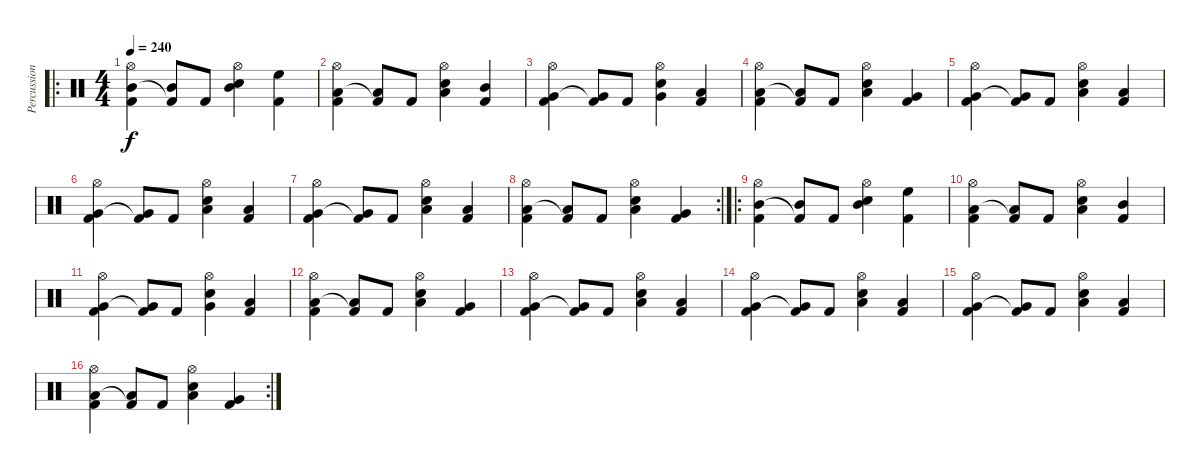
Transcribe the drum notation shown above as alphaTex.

\track ("Percussion" "Percussion") {instrument percussion}
\staff {score}
\articulation defaults
\ro
\ts (4 4)
\tempo 240
\clef neutral
\ks c
("Hi-Hat (open)" "Mid Tom (hit)" "Kick (hit) 2").4{dy f} ("Mid Tom (hit)" "Kick (hit) 2"{t}).8 "Kick (hit) 2".8 ("Hi-Hat (open)" "Mid Tom (hit)" "Snare (hit) 2").4 ("High Floor Tom (hit)" "Kick (hit) 2").4 |
("Hi-Hat (open)" "Low Tom (hit)" "Kick (hit) 2").4 ("Low Tom (hit)" "Kick (hit) 2"{t}).8 "Kick (hit) 2".8 ("Hi-Hat (open)" "Low Tom (hit)" "Snare (hit) 2").4 ("Mid Tom (hit)" "Kick (hit) 2").4 |
("Hi-Hat (open)" "Very Low Tom (hit)" "Kick (hit) 2").4 ("Very Low Tom (hit)" "Kick (hit) 2"{t}).8 "Kick (hit) 2".8 ("Hi-Hat (open)" "Very Low Tom (hit)" "Snare (hit) 2").4 ("Low Tom (hit)" "Kick (hit) 2").4 |
("Hi-Hat (open)" "Low Floor Tom (hit)" "Kick (hit) 2").4 ("Low Floor Tom (hit)" "Kick (hit) 2"{t}).8 "Kick (hit) 2".8 ("Hi-Hat (open)" "Low Floor Tom (hit)" "Snare (hit) 2").4 ("Very Low Tom (hit)" "Kick (hit) 2").4 |
("Hi-Hat (open)" "Very Low Tom (hit)" "Kick (hit) 2").4 ("Very Low Tom (hit)" "Kick (hit) 2"{t}).8 "Kick (hit) 2".8 ("Hi-Hat (open)" "Low Floor Tom (hit)" "Snare (hit) 2").4 ("Low Tom (hit)" "Kick (hit) 2").4 |
("Hi-Hat (open)" "Very Low Tom (hit)" "Kick (hit) 2").4 ("Very Low Tom (hit)" "Kick (hit) 2"{t}).8 "Kick (hit) 2".8 ("Hi-Hat (open)" "Low Floor Tom (hit)" "Snare (hit) 2").4 ("Low Tom (hit)" "Kick (hit) 2").4 |
("Hi-Hat (open)" "Very Low Tom (hit)" "Kick (hit) 2").4 ("Very Low Tom (hit)" "Kick (hit) 2"{t}).8 "Kick (hit) 2".8 ("Hi-Hat (open)" "Low Floor Tom (hit)" "Snare (hit) 2").4 ("Low Tom (hit)" "Kick (hit) 2").4 |
\rc 2
("Hi-Hat (open)" "Low Floor Tom (hit)" "Kick (hit) 2").4 ("Low Floor Tom (hit)" "Kick (hit) 2"{t}).8 "Kick (hit) 2".8 ("Hi-Hat (open)" "Low Floor Tom (hit)" "Snare (hit) 2").4 ("Very Low Tom (hit)" "Kick (hit) 2").4 |
\ro
("Hi-Hat (open)" "Mid Tom (hit)" "Kick (hit) 2").4 ("Mid Tom (hit)" "Kick (hit) 2"{t}).8 "Kick (hit) 2".8 ("Hi-Hat (open)" "Mid Tom (hit)" "Snare (hit) 2").4 ("High Floor Tom (hit)" "Kick (hit) 2").4 |
("Hi-Hat (open)" "Low Tom (hit)" "Kick (hit) 2").4 ("Low Tom (hit)" "Kick (hit) 2"{t}).8 "Kick (hit) 2".8 ("Hi-Hat (open)" "Low Tom (hit)" "Snare (hit) 2").4 ("Mid Tom (hit)" "Kick (hit) 2").4 |
("Hi-Hat (open)" "Very Low Tom (hit)" "Kick (hit) 2").4 ("Very Low Tom (hit)" "Kick (hit) 2"{t}).8 "Kick (hit) 2".8 ("Hi-Hat (open)" "Very Low Tom (hit)" "Snare (hit) 2").4 ("Low Tom (hit)" "Kick (hit) 2").4 |
("Hi-Hat (open)" "Low Floor Tom (hit)" "Kick (hit) 2").4 ("Low Floor Tom (hit)" "Kick (hit) 2"{t}).8 "Kick (hit) 2".8 ("Hi-Hat (open)" "Low Floor Tom (hit)" "Snare (hit) 2").4 ("Very Low Tom (hit)" "Kick (hit) 2").4 |
("Hi-Hat (open)" "Very Low Tom (hit)" "Kick (hit) 2").4 ("Very Low Tom (hit)" "Kick (hit) 2"{t}).8 "Kick (hit) 2".8 ("Hi-Hat (open)" "Low Floor Tom (hit)" "Snare (hit) 2").4 ("Low Tom (hit)" "Kick (hit) 2").4 |
("Hi-Hat (open)" "Very Low Tom (hit)" "Kick (hit) 2").4 ("Very Low Tom (hit)" "Kick (hit) 2"{t}).8 "Kick (hit) 2".8 ("Hi-Hat (open)" "Low Floor Tom (hit)" "Snare (hit) 2").4 ("Low Tom (hit)" "Kick (hit) 2").4 |
("Hi-Hat (open)" "Very Low Tom (hit)" "Kick (hit) 2").4 ("Very Low Tom (hit)" "Kick (hit) 2"{t}).8 "Kick (hit) 2".8 ("Hi-Hat (open)" "Low Floor Tom (hit)" "Snare (hit) 2").4 ("Low Tom (hit)" "Kick (hit) 2").4 |
\rc 2
("Hi-Hat (open)" "Low Floor Tom (hit)" "Kick (hit) 2").4 ("Low Floor Tom (hit)" "Kick (hit) 2"{t}).8 "Kick (hit) 2".8 ("Hi-Hat (open)" "Low Floor Tom (hit)" "Snare (hit) 2").4 ("Very Low Tom (hit)" "Kick (hit) 2").4
